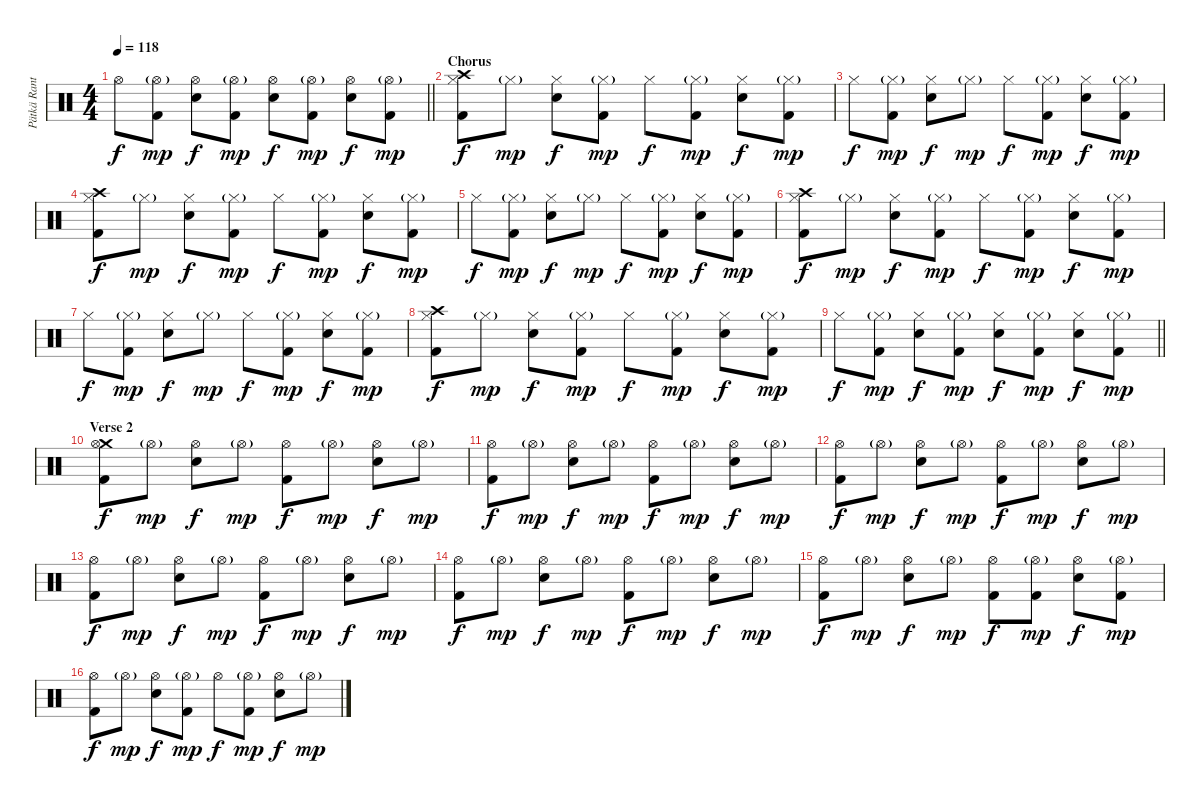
\track ("Pätkä Rantala (Drums)" "Pätkä Rant") {instrument percussion}
\staff {score}
\articulation defaults
\ts (4 4)
\tempo 118
\clef neutral
\barLineRight lightlight
\ks c "Hi-Hat (open)".8{dy f}
("Hi-Hat (open)"{g} "Kick (hit) 2").8{dy mp} ("Hi-Hat (open)" "Snare (hit) 2").8{dy f} ("Hi-Hat (open)"{g} "Kick (hit) 2").8{dy mp} ("Hi-Hat (open)" "Snare (hit) 2").8{dy f} ("Hi-Hat (open)"{g} "Kick (hit) 2").8{dy mp} ("Hi-Hat (open)" "Snare (hit) 2").8{dy f} ("Hi-Hat (open)"{g} "Kick (hit) 2").8{dy mp} |
\section ("" "Chorus")
("Crash high (hit)" "Hi-Hat (closed)" "Kick (hit) 2").8{dy f} "Hi-Hat (closed)"{g}.8{dy mp} ("Hi-Hat (closed)" "Snare (hit) 2").8{dy f} ("Hi-Hat (closed)"{g} "Kick (hit) 2").8{dy mp} "Hi-Hat (closed)".8{dy f} ("Hi-Hat (closed)"{g} "Kick (hit) 2").8{dy mp} ("Hi-Hat (closed)" "Snare (hit) 2").8{dy f} ("Hi-Hat (closed)"{g} "Kick (hit) 2").8{dy mp} |
"Hi-Hat (closed)".8{dy f} ("Hi-Hat (closed)"{g} "Kick (hit) 2").8{dy mp} ("Hi-Hat (closed)" "Snare (hit) 2").8{dy f} "Hi-Hat (closed)"{g}.8{dy mp} "Hi-Hat (closed)".8{dy f} ("Hi-Hat (closed)"{g} "Kick (hit) 2").8{dy mp} ("Hi-Hat (closed)" "Snare (hit) 2").8{dy f} ("Hi-Hat (closed)"{g} "Kick (hit) 2").8{dy mp} |
("Crash high (hit)" "Hi-Hat (closed)" "Kick (hit) 2").8{dy f} "Hi-Hat (closed)"{g}.8{dy mp} ("Hi-Hat (closed)" "Snare (hit) 2").8{dy f} ("Hi-Hat (closed)"{g} "Kick (hit) 2").8{dy mp} "Hi-Hat (closed)".8{dy f} ("Hi-Hat (closed)"{g} "Kick (hit) 2").8{dy mp} ("Hi-Hat (closed)" "Snare (hit) 2").8{dy f} ("Hi-Hat (closed)"{g} "Kick (hit) 2").8{dy mp} |
"Hi-Hat (closed)".8{dy f} ("Hi-Hat (closed)"{g} "Kick (hit) 2").8{dy mp} ("Hi-Hat (closed)" "Snare (hit) 2").8{dy f} "Hi-Hat (closed)"{g}.8{dy mp} "Hi-Hat (closed)".8{dy f} ("Hi-Hat (closed)"{g} "Kick (hit) 2").8{dy mp} ("Hi-Hat (closed)" "Snare (hit) 2").8{dy f} ("Hi-Hat (closed)"{g} "Kick (hit) 2").8{dy mp} |
("Crash high (hit)" "Hi-Hat (closed)" "Kick (hit) 2").8{dy f} "Hi-Hat (closed)"{g}.8{dy mp} ("Hi-Hat (closed)" "Snare (hit) 2").8{dy f} ("Hi-Hat (closed)"{g} "Kick (hit) 2").8{dy mp} "Hi-Hat (closed)".8{dy f} ("Hi-Hat (closed)"{g} "Kick (hit) 2").8{dy mp} ("Hi-Hat (closed)" "Snare (hit) 2").8{dy f} ("Hi-Hat (closed)"{g} "Kick (hit) 2").8{dy mp} |
"Hi-Hat (closed)".8{dy f} ("Hi-Hat (closed)"{g} "Kick (hit) 2").8{dy mp} ("Hi-Hat (closed)" "Snare (hit) 2").8{dy f} "Hi-Hat (closed)"{g}.8{dy mp} "Hi-Hat (closed)".8{dy f} ("Hi-Hat (closed)"{g} "Kick (hit) 2").8{dy mp} ("Hi-Hat (closed)" "Snare (hit) 2").8{dy f} ("Hi-Hat (closed)"{g} "Kick (hit) 2").8{dy mp} |
("Crash high (hit)" "Hi-Hat (closed)" "Kick (hit) 2").8{dy f} "Hi-Hat (closed)"{g}.8{dy mp} ("Hi-Hat (closed)" "Snare (hit) 2").8{dy f} ("Hi-Hat (closed)"{g} "Kick (hit) 2").8{dy mp} "Hi-Hat (closed)".8{dy f} ("Hi-Hat (closed)"{g} "Kick (hit) 2").8{dy mp} ("Hi-Hat (closed)" "Snare (hit) 2").8{dy f} ("Hi-Hat (closed)"{g} "Kick (hit) 2").8{dy mp} |
\barLineRight lightlight "Hi-Hat (closed)".8{dy f}
("Hi-Hat (closed)"{g} "Kick (hit) 2").8{dy mp} ("Hi-Hat (closed)" "Snare (hit) 2").8{dy f} ("Hi-Hat (closed)"{g} "Kick (hit) 2").8{dy mp} ("Hi-Hat (closed)" "Snare (hit) 2").8{dy f} ("Hi-Hat (closed)"{g} "Kick (hit) 2").8{dy mp} ("Hi-Hat (closed)" "Snare (hit) 2").8{dy f} ("Hi-Hat (closed)"{g} "Kick (hit) 2").8{dy mp} |
\section ("" "Verse 2")
("Crash medium (hit)" "Hi-Hat (open)" "Kick (hit) 2").8{dy f} "Hi-Hat (open)"{g}.8{dy mp} ("Hi-Hat (open)" "Snare (hit) 2").8{dy f} "Hi-Hat (open)"{g}.8{dy mp} ("Hi-Hat (open)" "Kick (hit) 2").8{dy f} "Hi-Hat (open)"{g}.8{dy mp} ("Hi-Hat (open)" "Snare (hit) 2").8{dy f} "Hi-Hat (open)"{g}.8{dy mp} |
("Hi-Hat (open)" "Kick (hit) 2").8{dy f} "Hi-Hat (open)"{g}.8{dy mp} ("Hi-Hat (open)" "Snare (hit) 2").8{dy f} "Hi-Hat (open)"{g}.8{dy mp} ("Hi-Hat (open)" "Kick (hit) 2").8{dy f} "Hi-Hat (open)"{g}.8{dy mp} ("Hi-Hat (open)" "Snare (hit) 2").8{dy f} "Hi-Hat (open)"{g}.8{dy mp} |
("Hi-Hat (open)" "Kick (hit) 2").8{dy f} "Hi-Hat (open)"{g}.8{dy mp} ("Hi-Hat (open)" "Snare (hit) 2").8{dy f} "Hi-Hat (open)"{g}.8{dy mp} ("Hi-Hat (open)" "Kick (hit) 2").8{dy f} "Hi-Hat (open)"{g}.8{dy mp} ("Hi-Hat (open)" "Snare (hit) 2").8{dy f} "Hi-Hat (open)"{g}.8{dy mp} |
("Hi-Hat (open)" "Kick (hit) 2").8{dy f} "Hi-Hat (open)"{g}.8{dy mp} ("Hi-Hat (open)" "Snare (hit) 2").8{dy f} "Hi-Hat (open)"{g}.8{dy mp} ("Hi-Hat (open)" "Kick (hit) 2").8{dy f} "Hi-Hat (open)"{g}.8{dy mp} ("Hi-Hat (open)" "Snare (hit) 2").8{dy f} "Hi-Hat (open)"{g}.8{dy mp} |
("Hi-Hat (open)" "Kick (hit) 2").8{dy f} "Hi-Hat (open)"{g}.8{dy mp} ("Hi-Hat (open)" "Snare (hit) 2").8{dy f} "Hi-Hat (open)"{g}.8{dy mp} ("Hi-Hat (open)" "Kick (hit) 2").8{dy f} "Hi-Hat (open)"{g}.8{dy mp} ("Hi-Hat (open)" "Snare (hit) 2").8{dy f} "Hi-Hat (open)"{g}.8{dy mp} |
("Hi-Hat (open)" "Kick (hit) 2").8{dy f} "Hi-Hat (open)"{g}.8{dy mp} ("Hi-Hat (open)" "Snare (hit) 2").8{dy f} "Hi-Hat (open)"{g}.8{dy mp} ("Hi-Hat (open)" "Kick (hit) 2").8{dy f} ("Hi-Hat (open)"{g} "Kick (hit) 2").8{dy mp} ("Hi-Hat (open)" "Snare (hit) 2").8{dy f} ("Hi-Hat (open)"{g} "Kick (hit) 2").8{dy mp} |
("Hi-Hat (open)" "Kick (hit) 2").8{dy f} "Hi-Hat (open)"{g}.8{dy mp} ("Hi-Hat (open)" "Snare (hit) 2").8{dy f} ("Hi-Hat (open)"{g} "Kick (hit) 2").8{dy mp} "Hi-Hat (open)".8{dy f} ("Hi-Hat (open)"{g} "Kick (hit) 2").8{dy mp} ("Hi-Hat (open)" "Snare (hit) 2").8{dy f} "Hi-Hat (open)"{g}.8{dy mp}
